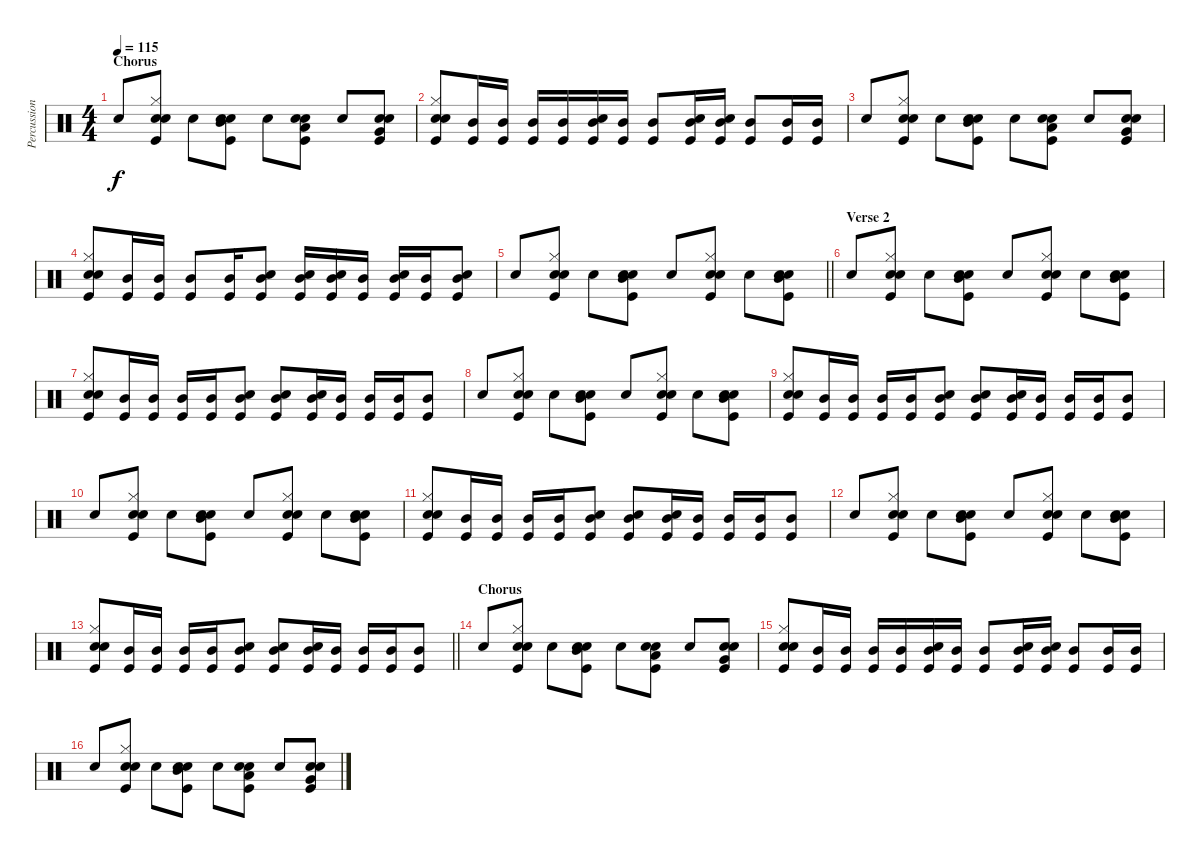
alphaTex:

\track ("Percussions" "Percussion") {instrument percussion}
\staff {score}
\articulation defaults
\ts (4 4)
\section ("" "Chorus")
\tempo 115
\clef neutral
\ks c "Snare (hit) 2".8{dy f}
("Hi-Hat (closed)" "Snare (hit) 2" "Electric Snare (hit)" "Kick (hit)").8 "Snare (hit) 2".8 ("Mid Tom (hit)" "Snare (hit) 2" "Electric Snare (hit)" "Kick (hit)").8 "Snare (hit) 2".8 ("Low Tom (hit)" "Snare (hit) 2" "Electric Snare (hit)" "Kick (hit)").8 "Snare (hit) 2".8 ("Very Low Tom (hit)" "Snare (hit) 2" "Electric Snare (hit)" "Kick (hit)").8 |
("Hi-Hat (closed)" "Snare (hit) 2" "Electric Snare (hit)" "Kick (hit)").8 ("Mid Tom (hit)" "Kick (hit)").16 ("Mid Tom (hit)" "Kick (hit)").16 ("Mid Tom (hit)" "Kick (hit)").16 ("Mid Tom (hit)" "Kick (hit)").16 ("Snare (hit) 2" "Mid Tom (hit)" "Kick (hit)").16 ("Mid Tom (hit)" "Kick (hit)").16 ("Mid Tom (hit)" "Kick (hit)").8 ("Snare (hit) 2" "Mid Tom (hit)" "Kick (hit)").16 ("Snare (hit) 2" "Mid Tom (hit)" "Kick (hit)").16 ("Mid Tom (hit)" "Kick (hit)").8 ("Mid Tom (hit)" "Kick (hit)").16 ("Mid Tom (hit)" "Kick (hit)").16 |
"Snare (hit) 2".8 ("Hi-Hat (closed)" "Snare (hit) 2" "Electric Snare (hit)" "Kick (hit)").8 "Snare (hit) 2".8 ("Mid Tom (hit)" "Snare (hit) 2" "Electric Snare (hit)" "Kick (hit)").8 "Snare (hit) 2".8 ("Low Tom (hit)" "Snare (hit) 2" "Electric Snare (hit)" "Kick (hit)").8 "Snare (hit) 2".8 ("Very Low Tom (hit)" "Snare (hit) 2" "Electric Snare (hit)" "Kick (hit)").8 |
("Hi-Hat (closed)" "Snare (hit) 2" "Electric Snare (hit)" "Kick (hit)").8 ("Mid Tom (hit)" "Kick (hit)").16 ("Mid Tom (hit)" "Kick (hit)").16 ("Mid Tom (hit)" "Kick (hit)").8 ("Mid Tom (hit)" "Kick (hit)").16 ("Snare (hit) 2" "Mid Tom (hit)" "Kick (hit)").8 ("Snare (hit) 2" "Mid Tom (hit)" "Kick (hit)").16 ("Snare (hit) 2" "Mid Tom (hit)" "Kick (hit)").16 ("Mid Tom (hit)" "Kick (hit)").16 ("Snare (hit) 2" "Mid Tom (hit)" "Kick (hit)").16 ("Mid Tom (hit)" "Kick (hit)").16 ("Snare (hit) 2" "Mid Tom (hit)" "Kick (hit)").8 |
\barLineRight lightlight "Snare (hit) 2".8
("Hi-Hat (closed)" "Snare (hit) 2" "Electric Snare (hit)" "Kick (hit)").8 "Snare (hit) 2".8 ("Mid Tom (hit)" "Snare (hit) 2" "Electric Snare (hit)" "Kick (hit)").8 "Snare (hit) 2".8 ("Hi-Hat (closed)" "Snare (hit) 2" "Electric Snare (hit)" "Kick (hit)").8 "Snare (hit) 2".8 ("Mid Tom (hit)" "Snare (hit) 2" "Electric Snare (hit)" "Kick (hit)").8 |
\section ("" "Verse 2")
"Snare (hit) 2".8 ("Hi-Hat (closed)" "Snare (hit) 2" "Electric Snare (hit)" "Kick (hit)").8 "Snare (hit) 2".8 ("Mid Tom (hit)" "Snare (hit) 2" "Electric Snare (hit)" "Kick (hit)").8 "Snare (hit) 2".8 ("Hi-Hat (closed)" "Snare (hit) 2" "Electric Snare (hit)" "Kick (hit)").8 "Snare (hit) 2".8 ("Mid Tom (hit)" "Snare (hit) 2" "Electric Snare (hit)" "Kick (hit)").8 |
("Hi-Hat (closed)" "Snare (hit) 2" "Electric Snare (hit)" "Kick (hit)").8 ("Mid Tom (hit)" "Kick (hit)").16 ("Mid Tom (hit)" "Kick (hit)").16 ("Mid Tom (hit)" "Kick (hit)").16 ("Mid Tom (hit)" "Kick (hit)").16 ("Snare (hit) 2" "Mid Tom (hit)" "Kick (hit)").8 ("Snare (hit) 2" "Mid Tom (hit)" "Kick (hit)").8 ("Snare (hit) 2" "Mid Tom (hit)" "Kick (hit)").16 ("Mid Tom (hit)" "Kick (hit)").16 ("Mid Tom (hit)" "Kick (hit)").16 ("Mid Tom (hit)" "Kick (hit)").16 ("Mid Tom (hit)" "Kick (hit)").8 |
"Snare (hit) 2".8 ("Hi-Hat (closed)" "Snare (hit) 2" "Electric Snare (hit)" "Kick (hit)").8 "Snare (hit) 2".8 ("Mid Tom (hit)" "Snare (hit) 2" "Electric Snare (hit)" "Kick (hit)").8 "Snare (hit) 2".8 ("Hi-Hat (closed)" "Snare (hit) 2" "Electric Snare (hit)" "Kick (hit)").8 "Snare (hit) 2".8 ("Mid Tom (hit)" "Snare (hit) 2" "Electric Snare (hit)" "Kick (hit)").8 |
("Hi-Hat (closed)" "Snare (hit) 2" "Electric Snare (hit)" "Kick (hit)").8 ("Mid Tom (hit)" "Kick (hit)").16 ("Mid Tom (hit)" "Kick (hit)").16 ("Mid Tom (hit)" "Kick (hit)").16 ("Mid Tom (hit)" "Kick (hit)").16 ("Snare (hit) 2" "Mid Tom (hit)" "Kick (hit)").8 ("Snare (hit) 2" "Mid Tom (hit)" "Kick (hit)").8 ("Snare (hit) 2" "Mid Tom (hit)" "Kick (hit)").16 ("Mid Tom (hit)" "Kick (hit)").16 ("Mid Tom (hit)" "Kick (hit)").16 ("Mid Tom (hit)" "Kick (hit)").16 ("Mid Tom (hit)" "Kick (hit)").8 |
"Snare (hit) 2".8 ("Hi-Hat (closed)" "Snare (hit) 2" "Electric Snare (hit)" "Kick (hit)").8 "Snare (hit) 2".8 ("Mid Tom (hit)" "Snare (hit) 2" "Electric Snare (hit)" "Kick (hit)").8 "Snare (hit) 2".8 ("Hi-Hat (closed)" "Snare (hit) 2" "Electric Snare (hit)" "Kick (hit)").8 "Snare (hit) 2".8 ("Mid Tom (hit)" "Snare (hit) 2" "Electric Snare (hit)" "Kick (hit)").8 |
("Hi-Hat (closed)" "Snare (hit) 2" "Electric Snare (hit)" "Kick (hit)").8 ("Mid Tom (hit)" "Kick (hit)").16 ("Mid Tom (hit)" "Kick (hit)").16 ("Mid Tom (hit)" "Kick (hit)").16 ("Mid Tom (hit)" "Kick (hit)").16 ("Snare (hit) 2" "Mid Tom (hit)" "Kick (hit)").8 ("Snare (hit) 2" "Mid Tom (hit)" "Kick (hit)").8 ("Snare (hit) 2" "Mid Tom (hit)" "Kick (hit)").16 ("Mid Tom (hit)" "Kick (hit)").16 ("Mid Tom (hit)" "Kick (hit)").16 ("Mid Tom (hit)" "Kick (hit)").16 ("Mid Tom (hit)" "Kick (hit)").8 |
"Snare (hit) 2".8 ("Hi-Hat (closed)" "Snare (hit) 2" "Electric Snare (hit)" "Kick (hit)").8 "Snare (hit) 2".8 ("Mid Tom (hit)" "Snare (hit) 2" "Electric Snare (hit)" "Kick (hit)").8 "Snare (hit) 2".8 ("Hi-Hat (closed)" "Snare (hit) 2" "Electric Snare (hit)" "Kick (hit)").8 "Snare (hit) 2".8 ("Mid Tom (hit)" "Snare (hit) 2" "Electric Snare (hit)" "Kick (hit)").8 |
\barLineRight lightlight
("Hi-Hat (closed)" "Snare (hit) 2" "Electric Snare (hit)" "Kick (hit)").8 ("Mid Tom (hit)" "Kick (hit)").16 ("Mid Tom (hit)" "Kick (hit)").16 ("Mid Tom (hit)" "Kick (hit)").16 ("Mid Tom (hit)" "Kick (hit)").16 ("Snare (hit) 2" "Mid Tom (hit)" "Kick (hit)").8 ("Snare (hit) 2" "Mid Tom (hit)" "Kick (hit)").8 ("Snare (hit) 2" "Mid Tom (hit)" "Kick (hit)").16 ("Mid Tom (hit)" "Kick (hit)").16 ("Mid Tom (hit)" "Kick (hit)").16 ("Mid Tom (hit)" "Kick (hit)").16 ("Mid Tom (hit)" "Kick (hit)").8 |
\section ("" "Chorus")
"Snare (hit) 2".8 ("Hi-Hat (closed)" "Snare (hit) 2" "Electric Snare (hit)" "Kick (hit)").8 "Snare (hit) 2".8 ("Mid Tom (hit)" "Snare (hit) 2" "Electric Snare (hit)" "Kick (hit)").8 "Snare (hit) 2".8 ("Low Tom (hit)" "Snare (hit) 2" "Electric Snare (hit)" "Kick (hit)").8 "Snare (hit) 2".8 ("Very Low Tom (hit)" "Snare (hit) 2" "Electric Snare (hit)" "Kick (hit)").8 |
("Hi-Hat (closed)" "Snare (hit) 2" "Electric Snare (hit)" "Kick (hit)").8 ("Mid Tom (hit)" "Kick (hit)").16 ("Mid Tom (hit)" "Kick (hit)").16 ("Mid Tom (hit)" "Kick (hit)").16 ("Mid Tom (hit)" "Kick (hit)").16 ("Snare (hit) 2" "Mid Tom (hit)" "Kick (hit)").16 ("Mid Tom (hit)" "Kick (hit)").16 ("Mid Tom (hit)" "Kick (hit)").8 ("Snare (hit) 2" "Mid Tom (hit)" "Kick (hit)").16 ("Snare (hit) 2" "Mid Tom (hit)" "Kick (hit)").16 ("Mid Tom (hit)" "Kick (hit)").8 ("Mid Tom (hit)" "Kick (hit)").16 ("Mid Tom (hit)" "Kick (hit)").16 |
"Snare (hit) 2".8 ("Hi-Hat (closed)" "Snare (hit) 2" "Electric Snare (hit)" "Kick (hit)").8 "Snare (hit) 2".8 ("Mid Tom (hit)" "Snare (hit) 2" "Electric Snare (hit)" "Kick (hit)").8 "Snare (hit) 2".8 ("Low Tom (hit)" "Snare (hit) 2" "Electric Snare (hit)" "Kick (hit)").8 "Snare (hit) 2".8 ("Very Low Tom (hit)" "Snare (hit) 2" "Electric Snare (hit)" "Kick (hit)").8
